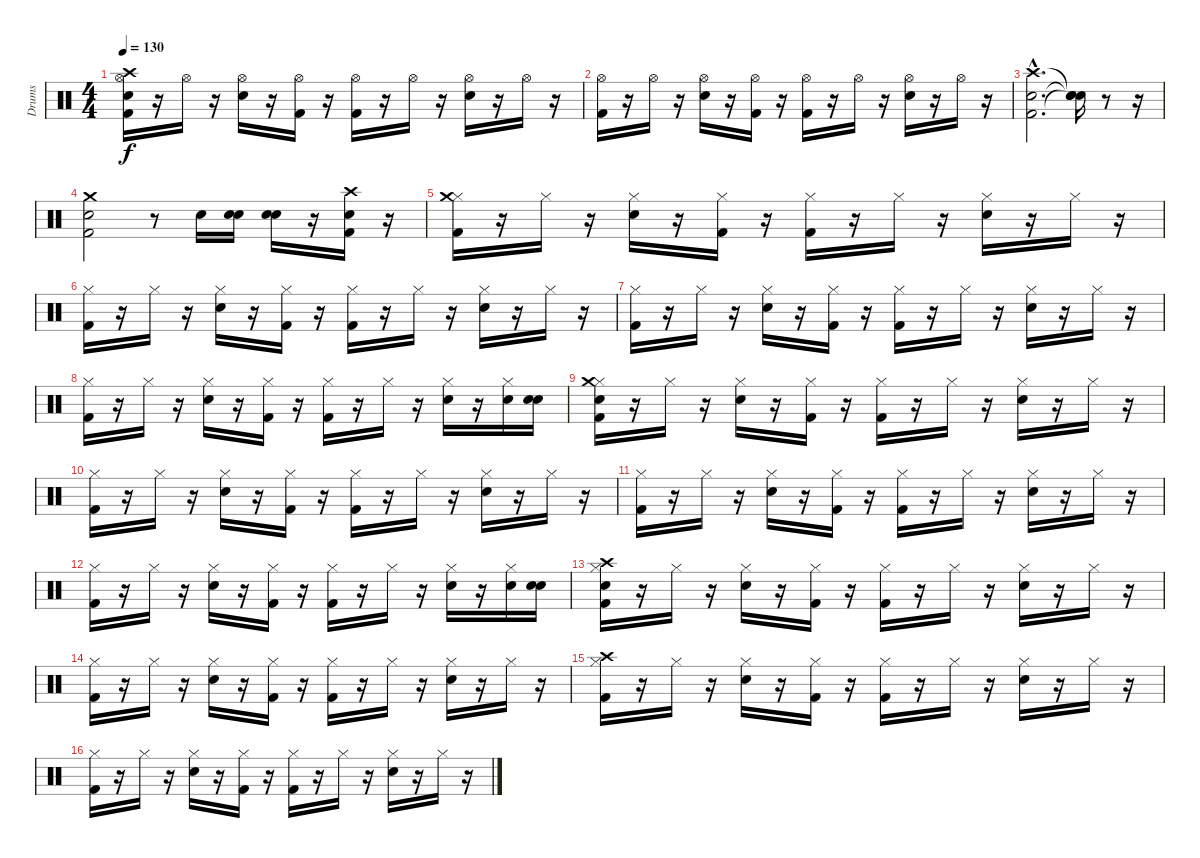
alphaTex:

\track ("Drums" "Drums") {instrument percussion}
\staff {score}
\articulation defaults
\ts (4 4)
\tempo 130
\clef neutral
\ks c
("Snare (hit)" "Kick (hit) 2" "Hi-Hat (open)" "Crash high (hit)").16{dy f} r.16 "Hi-Hat (open)".16 r.16 ("Hi-Hat (open)" "Snare (hit) 2").16 r.16 ("Hi-Hat (open)" "Kick (hit) 2").16 r.16 ("Hi-Hat (open)" "Kick (hit) 2").16 r.16 "Hi-Hat (open)".16 r.16 ("Snare (hit) 2" "Hi-Hat (open)").16 r.16 "Hi-Hat (open)".16 r.16 |
("Kick (hit) 2" "Hi-Hat (open)").16 r.16 "Hi-Hat (open)".16 r.16 ("Snare (hit) 2" "Hi-Hat (open)").16 r.16 ("Hi-Hat (open)" "Kick (hit) 2").16 r.16 ("Kick (hit) 2" "Hi-Hat (open)").16 r.16 "Hi-Hat (open)".16 r.16 ("Hi-Hat (open)" "Snare (hit) 2").16 r.16 "Hi-Hat (open)".16 r.16 |
("Crash high (hit)"{hac} "Snare (hit) 2"{hac} "Kick (hit) 2"{hac}).2{d} ("Snare (hit)"{t} "Snare (hit)"{t} "Snare (hit)"{t}).16 r.8 r.16 |
("Snare (hit) 2" "Crash medium (hit)" "Kick (hit) 2").2 r.8 "Snare (hit) 2".16 ("Snare (hit)" "Snare (hit) 2").16 ("Snare (hit)" "Snare (hit) 2").16 r.16 ("Kick (hit) 2" "Snare (hit) 2" "Crash high (hit)").16 r.16 |
("Kick (hit) 2" "Hi-Hat (closed)" "Crash medium (hit)").16 r.16 "Hi-Hat (closed)".16 r.16 ("Hi-Hat (closed)" "Snare (hit) 2").16 r.16 ("Hi-Hat (closed)" "Kick (hit) 2").16 r.16 ("Kick (hit) 2" "Hi-Hat (closed)").16 r.16 "Hi-Hat (closed)".16 r.16 ("Hi-Hat (closed)" "Snare (hit) 2").16 r.16 "Hi-Hat (closed)".16 r.16 |
("Hi-Hat (closed)" "Kick (hit) 2").16 r.16 "Hi-Hat (closed)".16 r.16 ("Snare (hit) 2" "Hi-Hat (closed)").16 r.16 ("Kick (hit) 2" "Hi-Hat (closed)").16 r.16 ("Kick (hit) 2" "Hi-Hat (closed)").16 r.16 "Hi-Hat (closed)".16 r.16 ("Hi-Hat (closed)" "Snare (hit) 2").16 r.16 "Hi-Hat (closed)".16 r.16 |
("Hi-Hat (closed)" "Kick (hit) 2").16 r.16 "Hi-Hat (closed)".16 r.16 ("Snare (hit) 2" "Hi-Hat (closed)").16 r.16 ("Kick (hit) 2" "Hi-Hat (closed)").16 r.16 ("Kick (hit) 2" "Hi-Hat (closed)").16 r.16 "Hi-Hat (closed)".16 r.16 ("Snare (hit) 2" "Hi-Hat (closed)").16 r.16 "Hi-Hat (closed)".16 r.16 |
("Hi-Hat (closed)" "Kick (hit) 2").16 r.16 "Hi-Hat (closed)".16 r.16 ("Hi-Hat (closed)" "Snare (hit) 2").16 r.16 ("Hi-Hat (closed)" "Kick (hit) 2").16 r.16 ("Kick (hit) 2" "Hi-Hat (closed)").16 r.16 "Hi-Hat (closed)".16 r.16 ("Snare (hit) 2" "Hi-Hat (closed)").16 r.16 ("Snare (hit) 2" "Hi-Hat (closed)").16 ("Snare (hit)" "Snare (hit) 2").16 |
("Snare (hit)" "Hi-Hat (closed)" "Crash medium (hit)" "Kick (hit) 2").16 r.16 "Hi-Hat (closed)".16 r.16 ("Snare (hit) 2" "Hi-Hat (closed)").16 r.16 ("Hi-Hat (closed)" "Kick (hit) 2").16 r.16 ("Hi-Hat (closed)" "Kick (hit) 2").16 r.16 "Hi-Hat (closed)".16 r.16 ("Snare (hit) 2" "Hi-Hat (closed)").16 r.16 "Hi-Hat (closed)".16 r.16 |
("Kick (hit) 2" "Hi-Hat (closed)").16 r.16 "Hi-Hat (closed)".16 r.16 ("Snare (hit) 2" "Hi-Hat (closed)").16 r.16 ("Kick (hit) 2" "Hi-Hat (closed)").16 r.16 ("Kick (hit) 2" "Hi-Hat (closed)").16 r.16 "Hi-Hat (closed)".16 r.16 ("Snare (hit) 2" "Hi-Hat (closed)").16 r.16 "Hi-Hat (closed)".16 r.16 |
("Kick (hit) 2" "Hi-Hat (closed)").16 r.16 "Hi-Hat (closed)".16 r.16 ("Hi-Hat (closed)" "Snare (hit) 2").16 r.16 ("Hi-Hat (closed)" "Kick (hit) 2").16 r.16 ("Kick (hit) 2" "Hi-Hat (closed)").16 r.16 "Hi-Hat (closed)".16 r.16 ("Snare (hit) 2" "Hi-Hat (closed)").16 r.16 "Hi-Hat (closed)".16 r.16 |
("Kick (hit) 2" "Hi-Hat (closed)").16 r.16 "Hi-Hat (closed)".16 r.16 ("Hi-Hat (closed)" "Snare (hit) 2").16 r.16 ("Kick (hit) 2" "Hi-Hat (closed)").16 r.16 ("Kick (hit) 2" "Hi-Hat (closed)").16 r.16 "Hi-Hat (closed)".16 r.16 ("Hi-Hat (closed)" "Snare (hit) 2").16 r.16 ("Hi-Hat (closed)" "Snare (hit) 2").16 ("Snare (hit)" "Snare (hit) 2").16 |
("Snare (hit)" "Crash high (hit)" "Kick (hit) 2" "Hi-Hat (closed)").16 r.16 "Hi-Hat (closed)".16 r.16 ("Snare (hit) 2" "Hi-Hat (closed)").16 r.16 ("Kick (hit) 2" "Hi-Hat (closed)").16 r.16 ("Hi-Hat (closed)" "Kick (hit) 2").16 r.16 "Hi-Hat (closed)".16 r.16 ("Hi-Hat (closed)" "Snare (hit) 2").16 r.16 "Hi-Hat (closed)".16 r.16 |
("Kick (hit) 2" "Hi-Hat (closed)").16 r.16 "Hi-Hat (closed)".16 r.16 ("Hi-Hat (closed)" "Snare (hit) 2").16 r.16 ("Kick (hit) 2" "Hi-Hat (closed)").16 r.16 ("Hi-Hat (closed)" "Kick (hit) 2").16 r.16 "Hi-Hat (closed)".16 r.16 ("Hi-Hat (closed)" "Snare (hit) 2").16 r.16 "Hi-Hat (closed)".16 r.16 |
("Hi-Hat (closed)" "Crash high (hit)" "Kick (hit) 2").16 r.16 "Hi-Hat (closed)".16 r.16 ("Snare (hit) 2" "Hi-Hat (closed)").16 r.16 ("Hi-Hat (closed)" "Kick (hit) 2").16 r.16 ("Kick (hit) 2" "Hi-Hat (closed)").16 r.16 "Hi-Hat (closed)".16 r.16 ("Hi-Hat (closed)" "Snare (hit) 2").16 r.16 "Hi-Hat (closed)".16 r.16 |
("Hi-Hat (closed)" "Kick (hit) 2").16 r.16 "Hi-Hat (closed)".16 r.16 ("Hi-Hat (closed)" "Snare (hit) 2").16 r.16 ("Kick (hit) 2" "Hi-Hat (closed)").16 r.16 ("Kick (hit) 2" "Hi-Hat (closed)").16 r.16 "Hi-Hat (closed)".16 r.16 ("Hi-Hat (closed)" "Snare (hit) 2").16 r.16 "Hi-Hat (closed)".16 r.16
